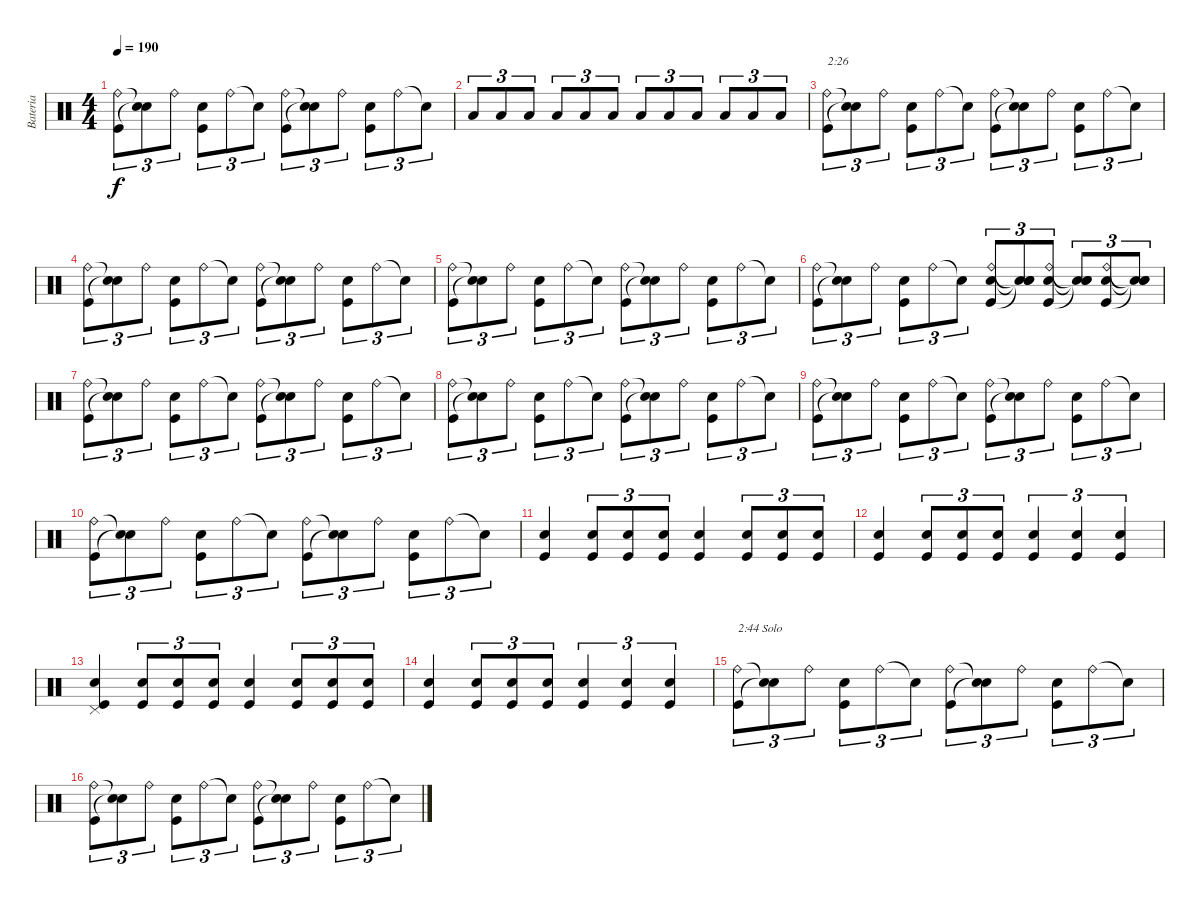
\track ("Bateria" "Bateria") {instrument percussion}
\staff {score}
\articulation defaults
\ts (4 4)
\tempo 190
\clef neutral
\ks c
("Kick (hit)" "Ride (bell)").8{tu (3 2) dy f} ("Snare (hit)"{t} "Snare (hit)"{t}).8{tu (3 2)} "Ride (bell)".8{tu (3 2)} ("Kick (hit)" "Snare (hit) 2").8{tu (3 2)} "Ride (bell)".8{tu (3 2)} "Snare (hit)"{t}.8{tu (3 2)} ("Kick (hit)" "Ride (bell)").8{tu (3 2)} ("Snare (hit)"{t} "Snare (hit)"{t}).8{tu (3 2)} "Ride (bell)".8{tu (3 2)} ("Kick (hit)" "Snare (hit) 2").8{tu (3 2)} "Ride (bell)".8{tu (3 2)} "Snare (hit)"{t}.8{tu (3 2)} |
"Low Floor Tom (hit)".8{tu (3 2)} "Low Floor Tom (hit)".8{tu (3 2)} "Low Floor Tom (hit)".8{tu (3 2)} "Low Floor Tom (hit)".8{tu (3 2)} "Low Floor Tom (hit)".8{tu (3 2)} "Low Floor Tom (hit)".8{tu (3 2)} "Low Floor Tom (hit)".8{tu (3 2)} "Low Floor Tom (hit)".8{tu (3 2)} "Low Floor Tom (hit)".8{tu (3 2)} "Low Floor Tom (hit)".8{tu (3 2)} "Low Floor Tom (hit)".8{tu (3 2)} "Low Floor Tom (hit)".8{tu (3 2)} |
("Kick (hit)" "Ride (bell)").8{tu (3 2) txt "2:26"} ("Snare (hit)"{t} "Snare (hit)"{t}).8{tu (3 2)} "Ride (bell)".8{tu (3 2)} ("Kick (hit)" "Snare (hit) 2").8{tu (3 2)} "Ride (bell)".8{tu (3 2)} "Snare (hit)"{t}.8{tu (3 2)} ("Kick (hit)" "Ride (bell)").8{tu (3 2)} ("Snare (hit)"{t} "Snare (hit)"{t}).8{tu (3 2)} "Ride (bell)".8{tu (3 2)} ("Kick (hit)" "Snare (hit) 2").8{tu (3 2)} "Ride (bell)".8{tu (3 2)} "Snare (hit)"{t}.8{tu (3 2)} |
("Kick (hit)" "Ride (bell)").8{tu (3 2)} ("Snare (hit)"{t} "Snare (hit)"{t}).8{tu (3 2)} "Ride (bell)".8{tu (3 2)} ("Kick (hit)" "Snare (hit) 2").8{tu (3 2)} "Ride (bell)".8{tu (3 2)} "Snare (hit)"{t}.8{tu (3 2)} ("Kick (hit)" "Ride (bell)").8{tu (3 2)} ("Snare (hit)"{t} "Snare (hit)"{t}).8{tu (3 2)} "Ride (bell)".8{tu (3 2)} ("Kick (hit)" "Snare (hit) 2").8{tu (3 2)} "Ride (bell)".8{tu (3 2)} "Snare (hit)"{t}.8{tu (3 2)} |
("Kick (hit)" "Ride (bell)").8{tu (3 2)} ("Snare (hit)"{t} "Snare (hit)"{t}).8{tu (3 2)} "Ride (bell)".8{tu (3 2)} ("Kick (hit)" "Snare (hit) 2").8{tu (3 2)} "Ride (bell)".8{tu (3 2)} "Snare (hit)"{t}.8{tu (3 2)} ("Kick (hit)" "Ride (bell)").8{tu (3 2)} ("Snare (hit)"{t} "Snare (hit)"{t}).8{tu (3 2)} "Ride (bell)".8{tu (3 2)} ("Kick (hit)" "Snare (hit) 2").8{tu (3 2)} "Ride (bell)".8{tu (3 2)} "Snare (hit)"{t}.8{tu (3 2)} |
("Kick (hit)" "Ride (bell)").8{tu (3 2)} ("Snare (hit)"{t} "Snare (hit)"{t}).8{tu (3 2)} "Ride (bell)".8{tu (3 2)} ("Kick (hit)" "Snare (hit) 2").8{tu (3 2)} "Ride (bell)".8{tu (3 2)} "Snare (hit)"{t}.8{tu (3 2)} ("Kick (hit)" "Snare (hit) 2" "Ride (bell)").8{tu (3 2)} ("Snare (hit)"{t} "Snare (hit)"{t} "Snare (hit)"{t}).8{tu (3 2)} ("Kick (hit)" "Snare (hit) 2" "Ride (bell)").8{tu (3 2)} ("Snare (hit)"{t} "Snare (hit)"{t} "Snare (hit)"{t}).8{tu (3 2)} ("Kick (hit)" "Snare (hit) 2" "Ride (bell)").8{tu (3 2)} ("Snare (hit)"{t} "Snare (hit)"{t} "Snare (hit)"{t}).8{tu (3 2)} |
("Kick (hit)" "Ride (bell)").8{tu (3 2)} ("Snare (hit)"{t} "Snare (hit)"{t}).8{tu (3 2)} "Ride (bell)".8{tu (3 2)} ("Kick (hit)" "Snare (hit) 2").8{tu (3 2)} "Ride (bell)".8{tu (3 2)} "Snare (hit)"{t}.8{tu (3 2)} ("Kick (hit)" "Ride (bell)").8{tu (3 2)} ("Snare (hit)"{t} "Snare (hit)"{t}).8{tu (3 2)} "Ride (bell)".8{tu (3 2)} ("Kick (hit)" "Snare (hit) 2").8{tu (3 2)} "Ride (bell)".8{tu (3 2)} "Snare (hit)"{t}.8{tu (3 2)} |
("Kick (hit)" "Ride (bell)").8{tu (3 2)} ("Snare (hit)"{t} "Snare (hit)"{t}).8{tu (3 2)} "Ride (bell)".8{tu (3 2)} ("Kick (hit)" "Snare (hit) 2").8{tu (3 2)} "Ride (bell)".8{tu (3 2)} "Snare (hit)"{t}.8{tu (3 2)} ("Kick (hit)" "Ride (bell)").8{tu (3 2)} ("Snare (hit)"{t} "Snare (hit)"{t}).8{tu (3 2)} "Ride (bell)".8{tu (3 2)} ("Kick (hit)" "Snare (hit) 2").8{tu (3 2)} "Ride (bell)".8{tu (3 2)} "Snare (hit)"{t}.8{tu (3 2)} |
("Kick (hit)" "Ride (bell)").8{tu (3 2)} ("Snare (hit)"{t} "Snare (hit)"{t}).8{tu (3 2)} "Ride (bell)".8{tu (3 2)} ("Kick (hit)" "Snare (hit) 2").8{tu (3 2)} "Ride (bell)".8{tu (3 2)} "Snare (hit)"{t}.8{tu (3 2)} ("Kick (hit)" "Ride (bell)").8{tu (3 2)} ("Snare (hit)"{t} "Snare (hit)"{t}).8{tu (3 2)} "Ride (bell)".8{tu (3 2)} ("Kick (hit)" "Snare (hit) 2").8{tu (3 2)} "Ride (bell)".8{tu (3 2)} "Snare (hit)"{t}.8{tu (3 2)} |
("Kick (hit)" "Ride (bell)").8{tu (3 2)} ("Snare (hit)"{t} "Snare (hit)"{t}).8{tu (3 2)} "Ride (bell)".8{tu (3 2)} ("Kick (hit)" "Snare (hit) 2").8{tu (3 2)} "Ride (bell)".8{tu (3 2)} "Snare (hit)"{t}.8{tu (3 2)} ("Kick (hit)" "Ride (bell)").8{tu (3 2)} ("Snare (hit)"{t} "Snare (hit)"{t}).8{tu (3 2)} "Ride (bell)".8{tu (3 2)} ("Kick (hit)" "Snare (hit) 2").8{tu (3 2)} "Ride (bell)".8{tu (3 2)} "Snare (hit)"{t}.8{tu (3 2)} |
("Kick (hit)" "Snare (hit) 2").4 ("Kick (hit)" "Snare (hit) 2").8{tu (3 2)} ("Kick (hit)" "Snare (hit) 2").8{tu (3 2)} ("Kick (hit)" "Snare (hit) 2").8{tu (3 2)} ("Kick (hit)" "Snare (hit) 2").4 ("Kick (hit)" "Snare (hit) 2").8{tu (3 2)} ("Kick (hit)" "Snare (hit) 2").8{tu (3 2)} ("Kick (hit)" "Snare (hit) 2").8{tu (3 2)} |
("Kick (hit)" "Snare (hit) 2").4 ("Kick (hit)" "Snare (hit) 2").8{tu (3 2)} ("Kick (hit)" "Snare (hit) 2").8{tu (3 2)} ("Kick (hit)" "Snare (hit) 2").8{tu (3 2)} ("Kick (hit)" "Snare (hit) 2").4{tu (3 2)} ("Kick (hit)" "Snare (hit) 2").4{tu (3 2)} ("Kick (hit)" "Snare (hit) 2").4{tu (3 2)} |
("Kick (hit)" "Snare (hit) 2" "Pedal Hi-Hat (hit)").4 ("Kick (hit)" "Snare (hit) 2").8{tu (3 2)} ("Kick (hit)" "Snare (hit) 2").8{tu (3 2)} ("Kick (hit)" "Snare (hit) 2").8{tu (3 2)} ("Kick (hit)" "Snare (hit) 2").4 ("Kick (hit)" "Snare (hit) 2").8{tu (3 2)} ("Kick (hit)" "Snare (hit) 2").8{tu (3 2)} ("Kick (hit)" "Snare (hit) 2").8{tu (3 2)} |
("Kick (hit)" "Snare (hit) 2").4 ("Kick (hit)" "Snare (hit) 2").8{tu (3 2)} ("Kick (hit)" "Snare (hit) 2").8{tu (3 2)} ("Kick (hit)" "Snare (hit) 2").8{tu (3 2)} ("Kick (hit)" "Snare (hit) 2").4{tu (3 2)} ("Kick (hit)" "Snare (hit) 2").4{tu (3 2)} ("Kick (hit)" "Snare (hit) 2").4{tu (3 2)} |
("Kick (hit)" "Ride (bell)").8{tu (3 2) txt "2:44 Solo"} ("Snare (hit)"{t} "Snare (hit)"{t}).8{tu (3 2)} "Ride (bell)".8{tu (3 2)} ("Kick (hit)" "Snare (hit) 2").8{tu (3 2)} "Ride (bell)".8{tu (3 2)} "Snare (hit)"{t}.8{tu (3 2)} ("Kick (hit)" "Ride (bell)").8{tu (3 2)} ("Snare (hit)"{t} "Snare (hit)"{t}).8{tu (3 2)} "Ride (bell)".8{tu (3 2)} ("Kick (hit)" "Snare (hit) 2").8{tu (3 2)} "Ride (bell)".8{tu (3 2)} "Snare (hit)"{t}.8{tu (3 2)} |
("Kick (hit)" "Ride (bell)").8{tu (3 2)} ("Snare (hit)"{t} "Snare (hit)"{t}).8{tu (3 2)} "Ride (bell)".8{tu (3 2)} ("Kick (hit)" "Snare (hit) 2").8{tu (3 2)} "Ride (bell)".8{tu (3 2)} "Snare (hit)"{t}.8{tu (3 2)} ("Kick (hit)" "Ride (bell)").8{tu (3 2)} ("Snare (hit)"{t} "Snare (hit)"{t}).8{tu (3 2)} "Ride (bell)".8{tu (3 2)} ("Kick (hit)" "Snare (hit) 2").8{tu (3 2)} "Ride (bell)".8{tu (3 2)} "Snare (hit)"{t}.8{tu (3 2)}
